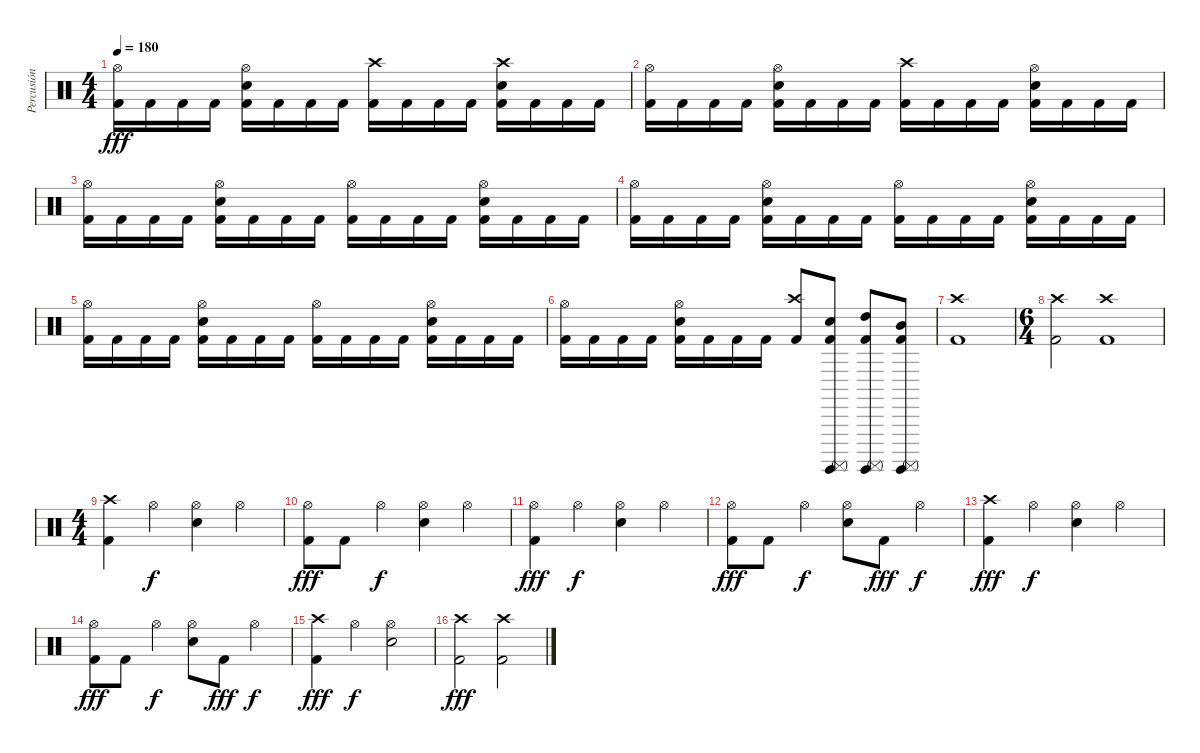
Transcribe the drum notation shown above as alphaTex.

\track ("Percusión" "Percusión") {instrument percussion}
\staff {score}
\articulation defaults
\ts (4 4)
\tempo 180
\clef neutral
\ks c
("Hi-Hat (open)" "Kick (hit) 2").16{dy fff} "Kick (hit) 2".16 "Kick (hit) 2".16 "Kick (hit) 2".16 ("Hi-Hat (open)" "Electric Snare (hit)" "Kick (hit) 2").16 "Kick (hit) 2".16 "Kick (hit) 2".16 "Kick (hit) 2".16 ("Crash high (hit)" "Kick (hit) 2").16 "Kick (hit) 2".16 "Kick (hit) 2".16 "Kick (hit) 2".16 ("Crash high (hit)" "Electric Snare (hit)" "Kick (hit) 2").16 "Kick (hit) 2".16 "Kick (hit) 2".16 "Kick (hit) 2".16 |
("Hi-Hat (open)" "Kick (hit) 2").16 "Kick (hit) 2".16 "Kick (hit) 2".16 "Kick (hit) 2".16 ("Hi-Hat (open)" "Electric Snare (hit)" "Kick (hit) 2").16 "Kick (hit) 2".16 "Kick (hit) 2".16 "Kick (hit) 2".16 ("Crash high (hit)" "Kick (hit) 2").16 "Kick (hit) 2".16 "Kick (hit) 2".16 "Kick (hit) 2".16 ("Hi-Hat (open)" "Electric Snare (hit)" "Kick (hit) 2").16 "Kick (hit) 2".16 "Kick (hit) 2".16 "Kick (hit) 2".16 |
("Hi-Hat (open)" "Kick (hit) 2").16 "Kick (hit) 2".16 "Kick (hit) 2".16 "Kick (hit) 2".16 ("Hi-Hat (open)" "Electric Snare (hit)" "Kick (hit) 2").16 "Kick (hit) 2".16 "Kick (hit) 2".16 "Kick (hit) 2".16 ("Hi-Hat (open)" "Kick (hit) 2").16 "Kick (hit) 2".16 "Kick (hit) 2".16 "Kick (hit) 2".16 ("Hi-Hat (open)" "Electric Snare (hit)" "Kick (hit) 2").16 "Kick (hit) 2".16 "Kick (hit) 2".16 "Kick (hit) 2".16 |
("Hi-Hat (open)" "Kick (hit) 2").16 "Kick (hit) 2".16 "Kick (hit) 2".16 "Kick (hit) 2".16 ("Hi-Hat (open)" "Electric Snare (hit)" "Kick (hit) 2").16 "Kick (hit) 2".16 "Kick (hit) 2".16 "Kick (hit) 2".16 ("Hi-Hat (open)" "Kick (hit) 2").16 "Kick (hit) 2".16 "Kick (hit) 2".16 "Kick (hit) 2".16 ("Hi-Hat (open)" "Electric Snare (hit)" "Kick (hit) 2").16 "Kick (hit) 2".16 "Kick (hit) 2".16 "Kick (hit) 2".16 |
("Hi-Hat (open)" "Kick (hit) 2").16 "Kick (hit) 2".16 "Kick (hit) 2".16 "Kick (hit) 2".16 ("Hi-Hat (open)" "Electric Snare (hit)" "Kick (hit) 2").16 "Kick (hit) 2".16 "Kick (hit) 2".16 "Kick (hit) 2".16 ("Hi-Hat (open)" "Kick (hit) 2").16 "Kick (hit) 2".16 "Kick (hit) 2".16 "Kick (hit) 2".16 ("Hi-Hat (open)" "Electric Snare (hit)" "Kick (hit) 2").16 "Kick (hit) 2".16 "Kick (hit) 2".16 "Kick (hit) 2".16 |
("Hi-Hat (open)" "Kick (hit) 2").16 "Kick (hit) 2".16 "Kick (hit) 2".16 "Kick (hit) 2".16 ("Hi-Hat (open)" "Electric Snare (hit)" "Kick (hit) 2").16 "Kick (hit) 2".16 "Kick (hit) 2".16 "Kick (hit) 2".16 ("Crash high (hit)" "Kick (hit) 2").8 ("Surdo (mute)" "Surdo (hit)" "Electric Snare (hit)" "Kick (hit) 2").8 ("Surdo (mute)" "Surdo (hit)" "High Tom (hit)" "Kick (hit) 2").8 ("Surdo (mute)" "Surdo (hit)" "Mid Tom (hit)" "Kick (hit) 2").8 |
("Crash high (hit)" "Kick (hit) 2").1 |
\ts (6 4)
("Crash high (hit)" "Kick (hit) 2").2 ("Crash high (hit)" "Kick (hit) 2").1 |
\ts (4 4)
("Crash high (hit)" "Kick (hit) 2").4 "Hi-Hat (open)".4{dy f} ("Hi-Hat (open)" "Electric Snare (hit)").4 "Hi-Hat (open)".4 |
("Hi-Hat (open)" "Kick (hit) 2").8{dy fff} "Kick (hit) 2".8 "Hi-Hat (open)".4{dy f} ("Hi-Hat (open)" "Electric Snare (hit)").4 "Hi-Hat (open)".4 |
("Hi-Hat (open)" "Kick (hit) 2").4{dy fff} "Hi-Hat (open)".4{dy f} ("Hi-Hat (open)" "Electric Snare (hit)").4 "Hi-Hat (open)".4 |
("Hi-Hat (open)" "Kick (hit) 2").8{dy fff} "Kick (hit) 2".8 "Hi-Hat (open)".4{dy f} ("Hi-Hat (open)" "Electric Snare (hit)").8 "Kick (hit) 2".8{dy fff} "Hi-Hat (open)".4{dy f} |
("Crash high (hit)" "Kick (hit) 2").4{dy fff} "Hi-Hat (open)".4{dy f} ("Hi-Hat (open)" "Electric Snare (hit)").4 "Hi-Hat (open)".4 |
("Hi-Hat (open)" "Kick (hit) 2").8{dy fff} "Kick (hit) 2".8 "Hi-Hat (open)".4{dy f} ("Hi-Hat (open)" "Electric Snare (hit)").8 "Kick (hit) 2".8{dy fff} "Hi-Hat (open)".4{dy f} |
("Crash high (hit)" "Kick (hit) 2").4{dy fff} "Hi-Hat (open)".4{dy f} ("Hi-Hat (open)" "Electric Snare (hit)").2 |
("Crash high (hit)" "Kick (hit) 2").2{dy fff} ("Crash high (hit)" "Kick (hit) 2").2
